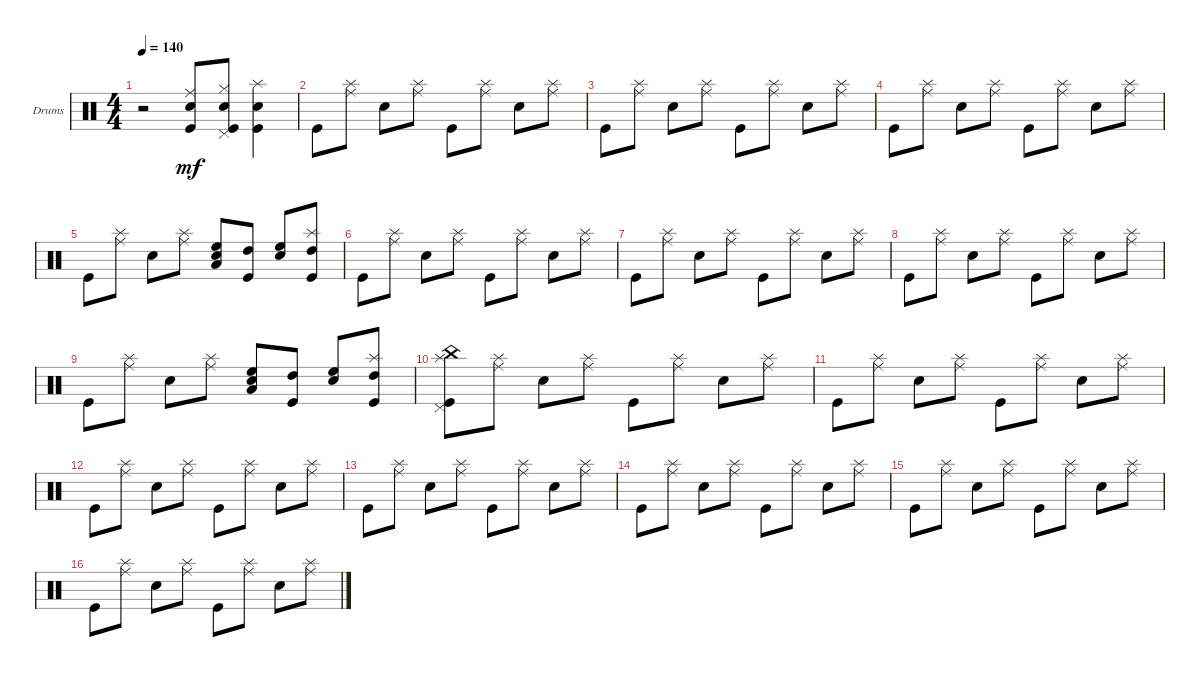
\defaultSystemsLayout 4
\bracketExtendMode groupsimilarinstruments
\firstSystemTrackNameOrientation horizontal
\otherSystemsTrackNameOrientation horizontal
\track ("Drumkit" "Drums") {instrument percussion}
\staff {score}
\articulation defaults
\ts (4 4)
\tempo 140
\clef neutral
\ks c
r.2{dy mf} ("Kick (hit)" "Ride (middle)" "Snare (hit) 2").8 ("Kick (hit)" "Hi-Hat (closed)" "Snare (hit) 2" "Pedal Hi-Hat (hit)").8 ("Kick (hit)" "Splash (hit)" "Snare (hit) 2").4 |
\scale
0.333333 "Kick (hit)".8 ("Splash (hit)" "Ride (middle)").8 "Snare (hit) 2".8 ("Splash (hit)" "Ride (middle)").8 "Kick (hit)".8 ("Splash (hit)" "Ride (middle)").8 "Snare (hit) 2".8 ("Splash (hit)" "Ride (middle)").8 |
"Kick (hit)".8 ("Splash (hit)" "Ride (middle)").8 "Snare (hit) 2".8 ("Splash (hit)" "Ride (middle)").8 "Kick (hit)".8 ("Splash (hit)" "Ride (middle)").8 "Snare (hit) 2".8 ("Splash (hit)" "Ride (middle)").8 |
"Kick (hit)".8 ("Splash (hit)" "Ride (middle)").8 "Snare (hit) 2".8 ("Splash (hit)" "Ride (middle)").8 "Kick (hit)".8 ("Splash (hit)" "Ride (middle)").8 "Snare (hit) 2".8 ("Splash (hit)" "Ride (middle)").8 |
"Kick (hit)".8 ("Splash (hit)" "Ride (middle)").8 "Snare (hit) 2".8 ("Splash (hit)" "Ride (middle)").8 ("High Floor Tom (hit)" "Low Tom (hit)" "Snare (hit) 2").8 ("High Tom (hit)" "Kick (hit)").8 ("High Floor Tom (hit)" "Snare (hit) 2").8 ("Splash (hit)" "High Tom (hit)" "Kick (hit)").8 |
"Kick (hit)".8 ("Splash (hit)" "Ride (middle)").8 "Snare (hit) 2".8 ("Splash (hit)" "Ride (middle)").8 "Kick (hit)".8 ("Splash (hit)" "Ride (middle)").8 "Snare (hit) 2".8 ("Splash (hit)" "Ride (middle)").8 |
"Kick (hit)".8 ("Splash (hit)" "Ride (middle)").8 "Snare (hit) 2".8 ("Splash (hit)" "Ride (middle)").8 "Kick (hit)".8 ("Splash (hit)" "Ride (middle)").8 "Snare (hit) 2".8 ("Splash (hit)" "Ride (middle)").8 |
"Kick (hit)".8 ("Splash (hit)" "Ride (middle)").8 "Snare (hit) 2".8 ("Splash (hit)" "Ride (middle)").8 "Kick (hit)".8 ("Splash (hit)" "Ride (middle)").8 "Snare (hit) 2".8 ("Splash (hit)" "Ride (middle)").8 |
"Kick (hit)".8 ("Splash (hit)" "Ride (middle)").8 "Snare (hit) 2".8 ("Splash (hit)" "Ride (middle)").8 ("High Floor Tom (hit)" "Low Tom (hit)" "Snare (hit) 2").8 ("High Tom (hit)" "Kick (hit)").8 ("High Floor Tom (hit)" "Snare (hit) 2").8 ("Splash (hit)" "High Tom (hit)" "Kick (hit)").8 |
("Kick (hit)" "China (hit)" "Pedal Hi-Hat (hit)" "Splash (hit)").8 ("Splash (hit)" "Ride (middle)").8 "Snare (hit) 2".8 ("Splash (hit)" "Ride (middle)").8 "Kick (hit)".8 ("Splash (hit)" "Ride (middle)").8 "Snare (hit) 2".8 ("Splash (hit)" "Ride (middle)").8 |
"Kick (hit)".8 ("Splash (hit)" "Ride (middle)").8 "Snare (hit) 2".8 ("Splash (hit)" "Ride (middle)").8 "Kick (hit)".8 ("Splash (hit)" "Ride (middle)").8 "Snare (hit) 2".8 ("Splash (hit)" "Ride (middle)").8 |
"Kick (hit)".8 ("Splash (hit)" "Ride (middle)").8 "Snare (hit) 2".8 ("Splash (hit)" "Ride (middle)").8 "Kick (hit)".8 ("Splash (hit)" "Ride (middle)").8 "Snare (hit) 2".8 ("Splash (hit)" "Ride (middle)").8 |
"Kick (hit)".8 ("Splash (hit)" "Ride (middle)").8 "Snare (hit) 2".8 ("Splash (hit)" "Ride (middle)").8 "Kick (hit)".8 ("Splash (hit)" "Ride (middle)").8 "Snare (hit) 2".8 ("Splash (hit)" "Ride (middle)").8 |
"Kick (hit)".8 ("Splash (hit)" "Ride (middle)").8 "Snare (hit) 2".8 ("Splash (hit)" "Ride (middle)").8 "Kick (hit)".8 ("Splash (hit)" "Ride (middle)").8 "Snare (hit) 2".8 ("Splash (hit)" "Ride (middle)").8 |
"Kick (hit)".8 ("Splash (hit)" "Ride (middle)").8 "Snare (hit) 2".8 ("Splash (hit)" "Ride (middle)").8 "Kick (hit)".8 ("Splash (hit)" "Ride (middle)").8 "Snare (hit) 2".8 ("Splash (hit)" "Ride (middle)").8 |
"Kick (hit)".8 ("Splash (hit)" "Ride (middle)").8 "Snare (hit) 2".8 ("Splash (hit)" "Ride (middle)").8 "Kick (hit)".8 ("Splash (hit)" "Ride (middle)").8 "Snare (hit) 2".8 ("Splash (hit)" "Ride (middle)").8
